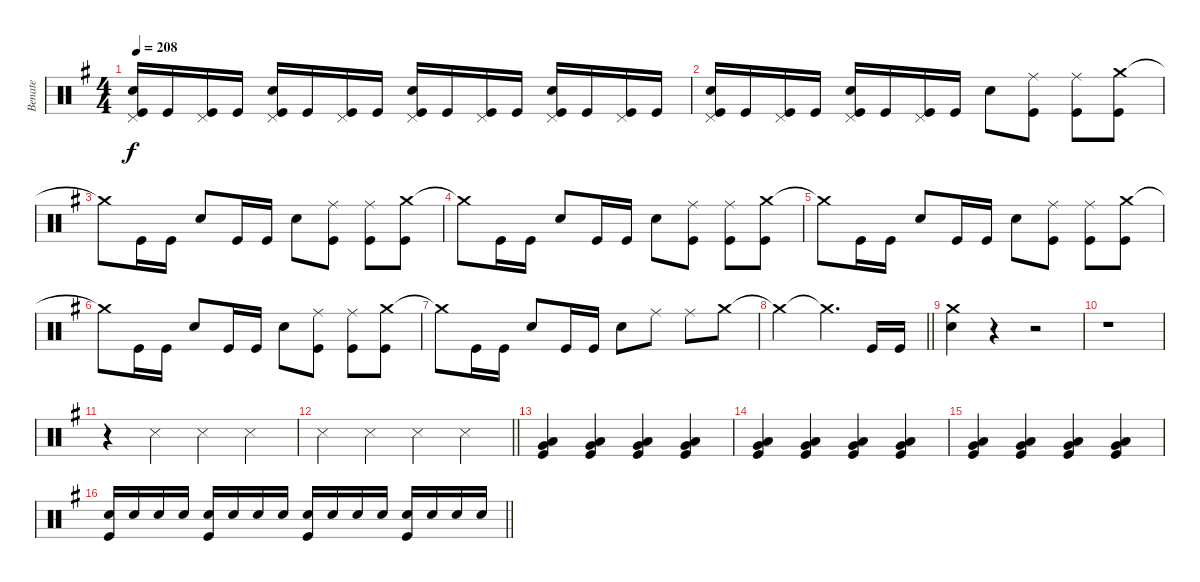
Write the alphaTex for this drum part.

\track ("Benate" "Benate") {instrument percussion}
\staff {score}
\articulation defaults
\ts (4 4)
\tempo 208
\clef neutral
\ks g
("Pedal Hi-Hat (hit)" "Snare (hit) 2" "Kick (hit)").16{dy f} "Kick (hit)".16 ("Pedal Hi-Hat (hit)" "Kick (hit)").16 "Kick (hit)".16 ("Pedal Hi-Hat (hit)" "Snare (hit) 2" "Kick (hit)").16 "Kick (hit)".16 ("Pedal Hi-Hat (hit)" "Kick (hit)").16 "Kick (hit)".16 ("Pedal Hi-Hat (hit)" "Snare (hit) 2" "Kick (hit)").16 "Kick (hit)".16 ("Pedal Hi-Hat (hit)" "Kick (hit)").16 "Kick (hit)".16 ("Pedal Hi-Hat (hit)" "Snare (hit) 2" "Kick (hit)").16 "Kick (hit)".16 ("Pedal Hi-Hat (hit)" "Kick (hit)").16 "Kick (hit)".16 |
("Pedal Hi-Hat (hit)" "Snare (hit) 2" "Kick (hit)").16 "Kick (hit)".16 ("Pedal Hi-Hat (hit)" "Kick (hit)").16 "Kick (hit)".16 ("Pedal Hi-Hat (hit)" "Snare (hit) 2" "Kick (hit)").16 "Kick (hit)".16 ("Pedal Hi-Hat (hit)" "Kick (hit)").16 "Kick (hit)".16 "Snare (hit) 2".8 ("Ride (middle)" "Kick (hit)").8 ("Ride (middle)" "Kick (hit)").8 ("Crash medium (hit)" "Kick (hit)").8 |
"Crash medium (hit)"{t}.8 "Kick (hit)".16 "Kick (hit)".16 "Snare (hit) 2".8 "Kick (hit)".16 "Kick (hit)".16 "Snare (hit) 2".8 ("Ride (middle)" "Kick (hit)").8 ("Ride (middle)" "Kick (hit)").8 ("Crash medium (hit)" "Kick (hit)").8 |
"Crash medium (hit)"{t}.8 "Kick (hit)".16 "Kick (hit)".16 "Snare (hit) 2".8 "Kick (hit)".16 "Kick (hit)".16 "Snare (hit) 2".8 ("Ride (middle)" "Kick (hit)").8 ("Ride (middle)" "Kick (hit)").8 ("Crash medium (hit)" "Kick (hit)").8 |
"Crash medium (hit)"{t}.8 "Kick (hit)".16 "Kick (hit)".16 "Snare (hit) 2".8 "Kick (hit)".16 "Kick (hit)".16 "Snare (hit) 2".8 ("Ride (middle)" "Kick (hit)").8 ("Ride (middle)" "Kick (hit)").8 ("Crash medium (hit)" "Kick (hit)").8 |
"Crash medium (hit)"{t}.8 "Kick (hit)".16 "Kick (hit)".16 "Snare (hit) 2".8 "Kick (hit)".16 "Kick (hit)".16 "Snare (hit) 2".8 ("Ride (middle)" "Kick (hit)").8 ("Ride (middle)" "Kick (hit)").8 ("Crash medium (hit)" "Kick (hit)").8 |
"Crash medium (hit)"{t}.8 "Kick (hit)".16 "Kick (hit)".16 "Snare (hit) 2".8 "Kick (hit)".16 "Kick (hit)".16 "Snare (hit) 2".8 "Ride (middle)".8 "Ride (middle)".8 "Crash medium (hit)".8 |
\barLineRight lightlight "Crash medium (hit)"{t}.2 "Crash medium (hit)"{t}.4{d} "Kick (hit)".16 "Kick (hit)".16
|
("Crash medium (hit)" "Snare (hit) 2").4 r.4 r.2 |
r.1 |
r.4 "Snare (side stick) 3".4 "Snare (side stick) 3".4 "Snare (side stick) 3".4 |
\barLineRight lightlight "Snare (side stick) 3".4 "Snare (side stick) 3".4 "Snare (side stick) 3".4 "Snare (side stick) 3".4
|
("Low Tom (hit)" "Very Low Tom (hit)" "Kick (hit)").4 ("Low Tom (hit)" "Very Low Tom (hit)" "Kick (hit)").4 ("Low Tom (hit)" "Very Low Tom (hit)" "Kick (hit)").4 ("Low Tom (hit)" "Very Low Tom (hit)" "Kick (hit)").4 |
("Low Tom (hit)" "Very Low Tom (hit)" "Kick (hit)").4 ("Low Tom (hit)" "Very Low Tom (hit)" "Kick (hit)").4 ("Low Tom (hit)" "Very Low Tom (hit)" "Kick (hit)").4 ("Low Tom (hit)" "Very Low Tom (hit)" "Kick (hit)").4 |
("Low Tom (hit)" "Very Low Tom (hit)" "Kick (hit)").4 ("Low Tom (hit)" "Very Low Tom (hit)" "Kick (hit)").4 ("Low Tom (hit)" "Very Low Tom (hit)" "Kick (hit)").4 ("Low Tom (hit)" "Very Low Tom (hit)" "Kick (hit)").4 |
\barLineRight lightlight
("Snare (hit) 2" "Kick (hit)").16 "Snare (hit) 2".16 "Snare (hit) 2".16 "Snare (hit) 2".16 ("Snare (hit) 2" "Kick (hit)").16 "Snare (hit) 2".16 "Snare (hit) 2".16 "Snare (hit) 2".16 ("Snare (hit) 2" "Kick (hit)").16 "Snare (hit) 2".16 "Snare (hit) 2".16 "Snare (hit) 2".16 ("Snare (hit) 2" "Kick (hit)").16 "Snare (hit) 2".16 "Snare (hit) 2".16 "Snare (hit) 2".16
